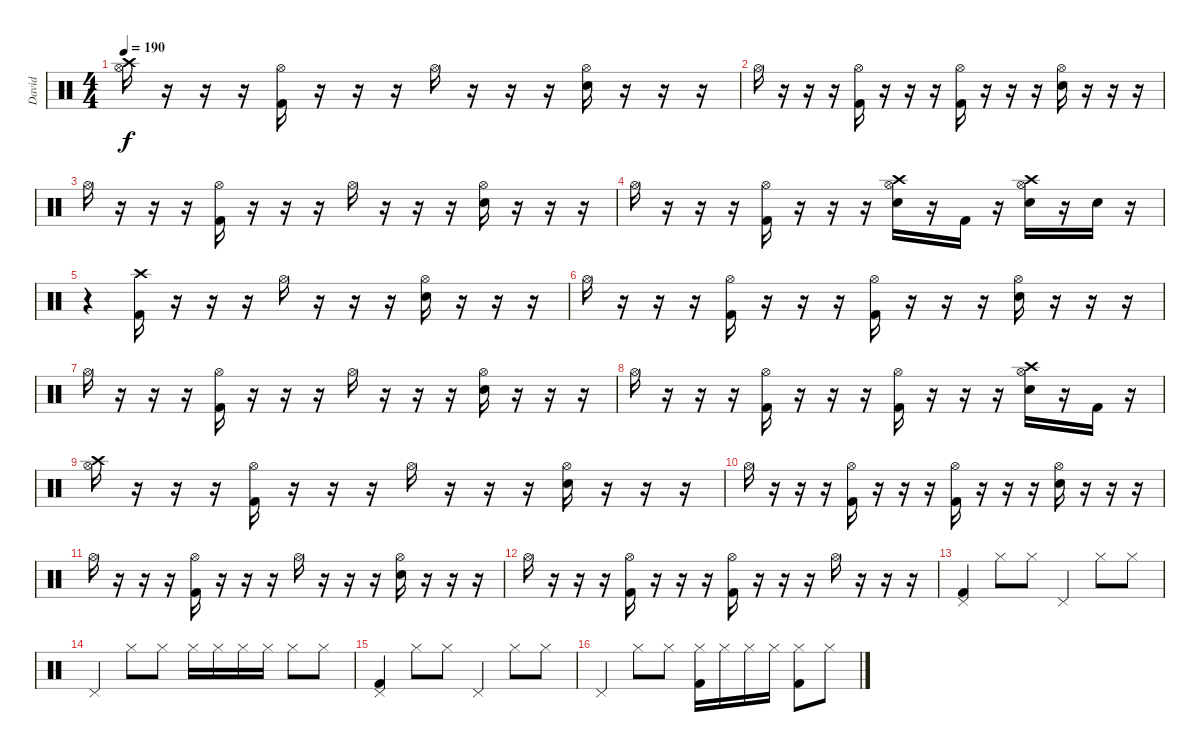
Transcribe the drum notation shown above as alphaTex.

\track ("David" "David") {instrument percussion}
\staff {score}
\articulation defaults
\ts (4 4)
\tempo 190
\clef neutral
\ks c
("Crash high (hit)" "Hi-Hat (open)").16{dy f} r.16 r.16 r.16 ("Hi-Hat (open)" "Kick (hit) 2").16 r.16 r.16 r.16 "Hi-Hat (open)".16 r.16 r.16 r.16 ("Hi-Hat (open)" "Electric Snare (hit)").16 r.16 r.16 r.16 |
"Hi-Hat (open)".16 r.16 r.16 r.16 ("Hi-Hat (open)" "Kick (hit) 2").16 r.16 r.16 r.16 ("Hi-Hat (open)" "Kick (hit) 2").16 r.16 r.16 r.16 ("Hi-Hat (open)" "Electric Snare (hit)").16 r.16 r.16 r.16 |
"Hi-Hat (open)".16 r.16 r.16 r.16 ("Hi-Hat (open)" "Kick (hit) 2").16 r.16 r.16 r.16 "Hi-Hat (open)".16 r.16 r.16 r.16 ("Hi-Hat (open)" "Electric Snare (hit)").16 r.16 r.16 r.16 |
"Hi-Hat (open)".16 r.16 r.16 r.16 ("Hi-Hat (open)" "Kick (hit) 2").16 r.16 r.16 r.16 ("Crash high (hit)" "Hi-Hat (open)" "Electric Snare (hit)").16 r.16 "Kick (hit) 2".16 r.16 ("Crash high (hit)" "Hi-Hat (open)" "Electric Snare (hit)").16 r.16 "Electric Snare (hit)".16 r.16 |
r.4 ("Crash high (hit)" "Kick (hit) 2").16 r.16 r.16 r.16 "Hi-Hat (open)".16 r.16 r.16 r.16 ("Hi-Hat (open)" "Electric Snare (hit)").16 r.16 r.16 r.16 |
"Hi-Hat (open)".16 r.16 r.16 r.16 ("Hi-Hat (open)" "Kick (hit) 2").16 r.16 r.16 r.16 ("Hi-Hat (open)" "Kick (hit) 2").16 r.16 r.16 r.16 ("Hi-Hat (open)" "Electric Snare (hit)").16 r.16 r.16 r.16 |
"Hi-Hat (open)".16 r.16 r.16 r.16 ("Hi-Hat (open)" "Kick (hit) 2").16 r.16 r.16 r.16 "Hi-Hat (open)".16 r.16 r.16 r.16 ("Hi-Hat (open)" "Electric Snare (hit)").16 r.16 r.16 r.16 |
"Hi-Hat (open)".16 r.16 r.16 r.16 ("Hi-Hat (open)" "Kick (hit) 2").16 r.16 r.16 r.16 ("Hi-Hat (open)" "Kick (hit) 2").16 r.16 r.16 r.16 ("Crash high (hit)" "Hi-Hat (open)" "Electric Snare (hit)").16 r.16 "Kick (hit) 2".16 r.16 |
("Crash high (hit)" "Hi-Hat (open)").16 r.16 r.16 r.16 ("Hi-Hat (open)" "Kick (hit) 2").16 r.16 r.16 r.16 "Hi-Hat (open)".16 r.16 r.16 r.16 ("Hi-Hat (open)" "Electric Snare (hit)").16 r.16 r.16 r.16 |
"Hi-Hat (open)".16 r.16 r.16 r.16 ("Hi-Hat (open)" "Kick (hit) 2").16 r.16 r.16 r.16 ("Hi-Hat (open)" "Kick (hit) 2").16 r.16 r.16 r.16 ("Hi-Hat (open)" "Electric Snare (hit)").16 r.16 r.16 r.16 |
"Hi-Hat (open)".16 r.16 r.16 r.16 ("Hi-Hat (open)" "Kick (hit) 2").16 r.16 r.16 r.16 "Hi-Hat (open)".16 r.16 r.16 r.16 ("Hi-Hat (open)" "Electric Snare (hit)").16 r.16 r.16 r.16 |
"Hi-Hat (open)".16 r.16 r.16 r.16 ("Hi-Hat (open)" "Kick (hit) 2").16 r.16 r.16 r.16 ("Hi-Hat (open)" "Kick (hit) 2").16 r.16 r.16 r.16 "Hi-Hat (open)".16 r.16 r.16 r.16 |
("Pedal Hi-Hat (hit)" "Kick (hit) 2").4 "Hi-Hat (closed)".8 "Hi-Hat (closed)".8 "Pedal Hi-Hat (hit)".4 "Hi-Hat (closed)".8 "Hi-Hat (closed)".8 |
"Pedal Hi-Hat (hit)".4 "Hi-Hat (closed)".8 "Hi-Hat (closed)".8 "Hi-Hat (closed)".16 "Hi-Hat (closed)".16 "Hi-Hat (closed)".16 "Hi-Hat (closed)".16 "Hi-Hat (closed)".8 "Hi-Hat (closed)".8 |
("Pedal Hi-Hat (hit)" "Kick (hit) 2").4 "Hi-Hat (closed)".8 "Hi-Hat (closed)".8 "Pedal Hi-Hat (hit)".4 "Hi-Hat (closed)".8 "Hi-Hat (closed)".8 |
"Pedal Hi-Hat (hit)".4 "Hi-Hat (closed)".8 "Hi-Hat (closed)".8 ("Hi-Hat (closed)" "Kick (hit) 2").16 "Hi-Hat (closed)".16 "Hi-Hat (closed)".16 "Hi-Hat (closed)".16 ("Hi-Hat (closed)" "Kick (hit) 2").8 "Hi-Hat (closed)".8
